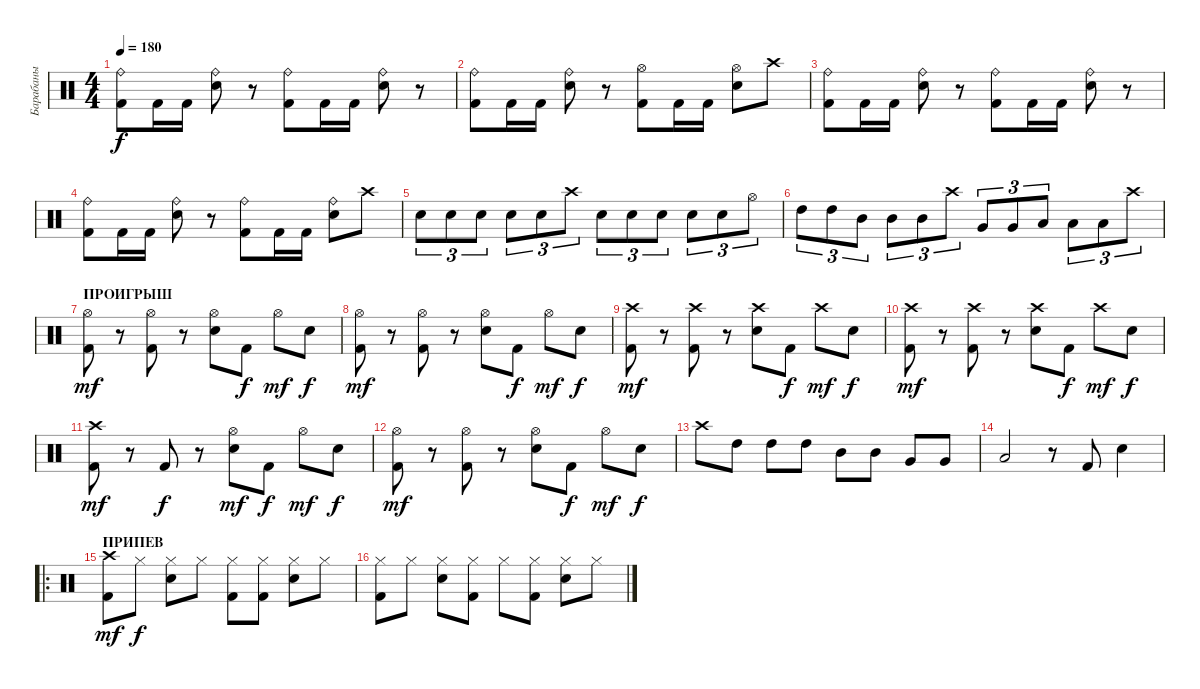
\track ("Барабаны" "Барабаны") {instrument percussion}
\staff {score}
\articulation defaults
\ts (4 4)
\tempo 180
\clef neutral
\ks c
("Ride (bell)" "Kick (hit) 2").8{dy f} "Kick (hit) 2".16 "Kick (hit) 2".16 ("Ride (bell)" "Snare (hit) 2").8 r.8 ("Ride (bell)" "Kick (hit) 2").8 "Kick (hit) 2".16 "Kick (hit) 2".16 ("Ride (bell)" "Snare (hit) 2").8 r.8 |
("Ride (bell)" "Kick (hit) 2").8 "Kick (hit) 2".16 "Kick (hit) 2".16 ("Ride (bell)" "Snare (hit) 2").8 r.8 ("Hi-Hat (open)" "Kick (hit) 2").8 "Kick (hit) 2".16 "Kick (hit) 2".16 ("Hi-Hat (open)" "Snare (hit) 2").8 "Crash high (hit)".8 |
("Ride (bell)" "Kick (hit) 2").8 "Kick (hit) 2".16 "Kick (hit) 2".16 ("Ride (bell)" "Snare (hit) 2").8 r.8 ("Ride (bell)" "Kick (hit) 2").8 "Kick (hit) 2".16 "Kick (hit) 2".16 ("Ride (bell)" "Snare (hit) 2").8 r.8 |
("Ride (bell)" "Kick (hit) 2").8 "Kick (hit) 2".16 "Kick (hit) 2".16 ("Ride (bell)" "Snare (hit) 2").8 r.8 ("Ride (bell)" "Kick (hit) 2").8 "Kick (hit) 2".16 "Kick (hit) 2".16 ("Ride (bell)" "Snare (hit) 2").8 "Crash high (hit)".8 |
"Snare (hit) 2".8{tu (3 2)} "Snare (hit) 2".8{tu (3 2)} "Snare (hit) 2".8{tu (3 2)} "Snare (hit) 2".8{tu (3 2)} "Snare (hit) 2".8{tu (3 2)} "Crash high (hit)".8{tu (3 2)} "Snare (hit) 2".8{tu (3 2)} "Snare (hit) 2".8{tu (3 2)} "Snare (hit) 2".8{tu (3 2)} "Snare (hit) 2".8{tu (3 2)} "Snare (hit) 2".8{tu (3 2)} "Hi-Hat (open)".8{tu (3 2)} |
"High Tom (hit)".8{tu (3 2)} "High Tom (hit)".8{tu (3 2)} "Mid Tom (hit)".8{tu (3 2)} "Mid Tom (hit)".8{tu (3 2)} "Mid Tom (hit)".8{tu (3 2)} "Crash high (hit)".8{tu (3 2)} "Very Low Tom (hit)".8{tu (3 2)} "Very Low Tom (hit)".8{tu (3 2)} "Low Floor Tom (hit)".8{tu (3 2)} "Low Floor Tom (hit)".8{tu (3 2)} "Low Floor Tom (hit)".8{tu (3 2)} "Crash high (hit)".8{tu (3 2)} |
\section ("" "ПРОИГРЫШ")
("Hi-Hat (open)" "Kick (hit) 2").8{dy mf} r.8 ("Hi-Hat (open)" "Kick (hit) 2").8 r.8 ("Hi-Hat (open)" "Snare (hit) 2").8 "Kick (hit) 2".8{dy f} "Hi-Hat (open)".8{dy mf} "Snare (hit) 2".8{dy f} |
("Hi-Hat (open)" "Kick (hit) 2").8{dy mf} r.8 ("Hi-Hat (open)" "Kick (hit) 2").8 r.8 ("Hi-Hat (open)" "Snare (hit) 2").8 "Kick (hit) 2".8{dy f} "Hi-Hat (open)".8{dy mf} "Snare (hit) 2".8{dy f} |
("Crash high (hit)" "Kick (hit) 2").8{dy mf} r.8 ("Crash high (hit)" "Kick (hit) 2").8 r.8 ("Crash high (hit)" "Snare (hit) 2").8 "Kick (hit) 2".8{dy f} "Crash high (hit)".8{dy mf} "Snare (hit) 2".8{dy f} |
("Crash high (hit)" "Kick (hit) 2").8{dy mf} r.8 ("Crash high (hit)" "Kick (hit) 2").8 r.8 ("Crash high (hit)" "Snare (hit) 2").8 "Kick (hit) 2".8{dy f} "Crash high (hit)".8{dy mf} "Snare (hit) 2".8{dy f} |
("Crash high (hit)" "Kick (hit) 2").8{dy mf} r.8 "Kick (hit) 2".8{dy f} r.8 ("Hi-Hat (open)" "Snare (hit) 2").8{dy mf} "Kick (hit) 2".8{dy f} "Hi-Hat (open)".8{dy mf} "Snare (hit) 2".8{dy f} |
("Hi-Hat (open)" "Kick (hit) 2").8{dy mf} r.8 ("Hi-Hat (open)" "Kick (hit) 2").8 r.8 ("Hi-Hat (open)" "Snare (hit) 2").8 "Kick (hit) 2".8{dy f} "Hi-Hat (open)".8{dy mf} "Snare (hit) 2".8{dy f} |
"Crash high (hit)".8 "High Tom (hit)".8 "High Tom (hit)".8 "High Tom (hit)".8 "Mid Tom (hit)".8 "Mid Tom (hit)".8 "Very Low Tom (hit)".8 "Very Low Tom (hit)".8 |
"Low Floor Tom (hit)".2 r.8 "Kick (hit) 2".8 "Snare (hit) 2".4 |
\ro
\section ("" "ПРИПЕВ")
("Crash high (hit)" "Kick (hit) 2").8{dy mf} "Hi-Hat (closed)".8{dy f} ("Hi-Hat (closed)" "Snare (hit) 2").8 "Hi-Hat (closed)".8 ("Hi-Hat (closed)" "Kick (hit) 2").8 ("Hi-Hat (closed)" "Kick (hit) 2").8 ("Hi-Hat (closed)" "Snare (hit) 2").8 "Hi-Hat (closed)".8 |
("Hi-Hat (closed)" "Kick (hit) 2").8 "Hi-Hat (closed)".8 ("Hi-Hat (closed)" "Snare (hit) 2").8 ("Hi-Hat (closed)" "Kick (hit) 2").8 "Hi-Hat (closed)".8 ("Hi-Hat (closed)" "Kick (hit) 2").8 ("Hi-Hat (closed)" "Snare (hit) 2").8 "Hi-Hat (closed)".8
